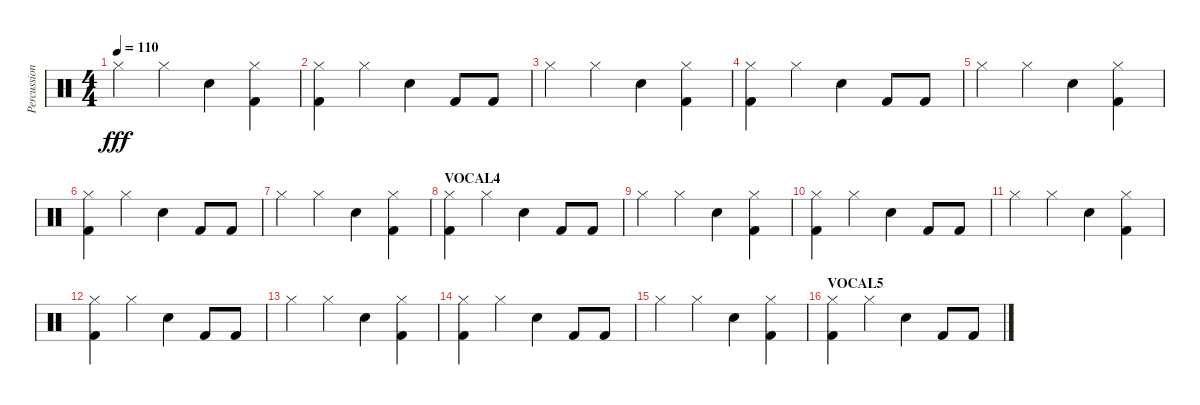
\track ("Percussion" "Percussion") {instrument percussion}
\staff {score}
\articulation defaults
\ts (4 4)
\tempo 110
\clef neutral
\ks c "Hi-Hat (closed)".4{dy fff} "Hi-Hat (closed)".4 "Electric Snare (hit)".4
("Kick (hit) 2" "Hi-Hat (closed)").4 |
("Kick (hit) 2" "Hi-Hat (closed)").4 "Hi-Hat (closed)".4 "Electric Snare (hit)".4 "Kick (hit) 2".8 "Kick (hit) 2".8 |
"Hi-Hat (closed)".4 "Hi-Hat (closed)".4 "Electric Snare (hit)".4 ("Kick (hit) 2" "Hi-Hat (closed)").4 |
("Kick (hit) 2" "Hi-Hat (closed)").4 "Hi-Hat (closed)".4 "Electric Snare (hit)".4 "Kick (hit) 2".8 "Kick (hit) 2".8 |
"Hi-Hat (closed)".4 "Hi-Hat (closed)".4 "Electric Snare (hit)".4 ("Kick (hit) 2" "Hi-Hat (closed)").4 |
("Kick (hit) 2" "Hi-Hat (closed)").4 "Hi-Hat (closed)".4 "Electric Snare (hit)".4 "Kick (hit) 2".8 "Kick (hit) 2".8 |
"Hi-Hat (closed)".4 "Hi-Hat (closed)".4 "Electric Snare (hit)".4 ("Kick (hit) 2" "Hi-Hat (closed)").4 |
\section ("" "VOCAL4")
("Kick (hit) 2" "Hi-Hat (closed)").4 "Hi-Hat (closed)".4 "Electric Snare (hit)".4 "Kick (hit) 2".8 "Kick (hit) 2".8 |
"Hi-Hat (closed)".4 "Hi-Hat (closed)".4 "Electric Snare (hit)".4 ("Kick (hit) 2" "Hi-Hat (closed)").4 |
("Kick (hit) 2" "Hi-Hat (closed)").4 "Hi-Hat (closed)".4 "Electric Snare (hit)".4 "Kick (hit) 2".8 "Kick (hit) 2".8 |
"Hi-Hat (closed)".4 "Hi-Hat (closed)".4 "Electric Snare (hit)".4 ("Kick (hit) 2" "Hi-Hat (closed)").4 |
("Kick (hit) 2" "Hi-Hat (closed)").4 "Hi-Hat (closed)".4 "Electric Snare (hit)".4 "Kick (hit) 2".8 "Kick (hit) 2".8 |
"Hi-Hat (closed)".4 "Hi-Hat (closed)".4 "Electric Snare (hit)".4 ("Kick (hit) 2" "Hi-Hat (closed)").4 |
("Kick (hit) 2" "Hi-Hat (closed)").4 "Hi-Hat (closed)".4 "Electric Snare (hit)".4 "Kick (hit) 2".8 "Kick (hit) 2".8 |
"Hi-Hat (closed)".4 "Hi-Hat (closed)".4 "Electric Snare (hit)".4 ("Kick (hit) 2" "Hi-Hat (closed)").4 |
\section ("" "VOCAL5")
("Kick (hit) 2" "Hi-Hat (closed)").4 "Hi-Hat (closed)".4 "Electric Snare (hit)".4 "Kick (hit) 2".8 "Kick (hit) 2".8
